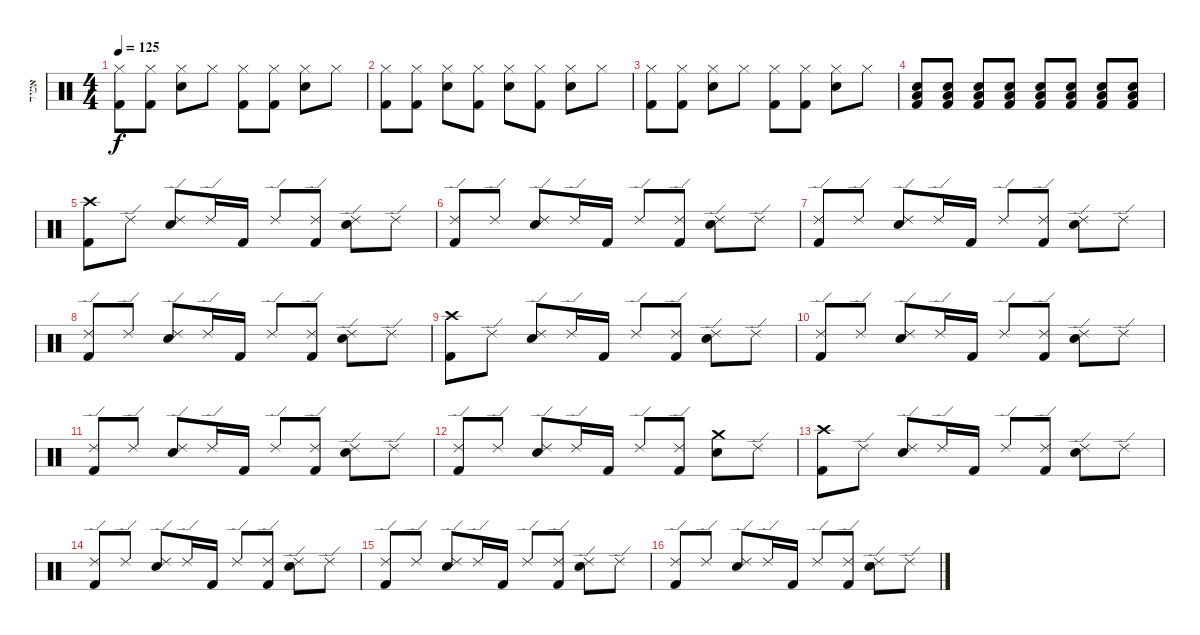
\track ("אמיר" "אמיר") {instrument percussion}
\staff {score}
\articulation defaults
\ts (4 4)
\tempo 125
\clef neutral
\ks c
("Hi-Hat (closed)" "Kick (hit) 2").8{dy f} ("Hi-Hat (closed)" "Kick (hit) 2").8 ("Hi-Hat (closed)" "Snare (hit) 2").8 "Hi-Hat (closed)".8 ("Hi-Hat (closed)" "Kick (hit) 2").8 ("Hi-Hat (closed)" "Kick (hit) 2").8 ("Hi-Hat (closed)" "Snare (hit) 2").8 "Hi-Hat (closed)".8 |
("Hi-Hat (closed)" "Kick (hit) 2").8 ("Hi-Hat (closed)" "Kick (hit) 2").8 ("Hi-Hat (closed)" "Snare (hit) 2").8 ("Hi-Hat (closed)" "Kick (hit) 2").8 ("Hi-Hat (closed)" "Snare (hit) 2").8 ("Hi-Hat (closed)" "Kick (hit) 2").8 ("Hi-Hat (closed)" "Snare (hit) 2").8 "Hi-Hat (closed)".8 |
("Hi-Hat (closed)" "Kick (hit) 2").8 ("Hi-Hat (closed)" "Kick (hit) 2").8 ("Hi-Hat (closed)" "Snare (hit) 2").8 "Hi-Hat (closed)".8 ("Hi-Hat (closed)" "Kick (hit) 2").8 ("Hi-Hat (closed)" "Kick (hit) 2").8 ("Hi-Hat (closed)" "Snare (hit) 2").8 "Hi-Hat (closed)".8 |
("Snare (hit) 2" "Low Floor Tom (hit)" "Kick (hit) 2").8 ("Snare (hit) 2" "Low Floor Tom (hit)" "Kick (hit) 2").8 ("Snare (hit) 2" "Low Floor Tom (hit)" "Kick (hit) 2").8 ("Snare (hit) 2" "Low Floor Tom (hit)" "Kick (hit) 2").8 ("Snare (hit) 2" "Low Floor Tom (hit)" "Kick (hit) 2").8 ("Snare (hit) 2" "Low Floor Tom (hit)" "Kick (hit) 2").8 ("Snare (hit) 2" "Low Floor Tom (hit)" "Kick (hit) 2").8 ("Snare (hit) 2" "Low Floor Tom (hit)" "Kick (hit) 2").8 |
("Crash high (hit)" "Kick (hit) 2").8 "Ride (edge) 2".8 ("Ride (edge) 2" "Snare (hit) 2").8 "Ride (edge) 2".16 "Kick (hit) 2".16 "Ride (edge) 2".8 ("Ride (edge) 2" "Kick (hit) 2").8 ("Ride (edge) 2" "Snare (hit) 2").8 "Ride (edge) 2".8 |
("Ride (edge) 2" "Kick (hit) 2").8 "Ride (edge) 2".8 ("Ride (edge) 2" "Snare (hit) 2").8 "Ride (edge) 2".16 "Kick (hit) 2".16 "Ride (edge) 2".8 ("Ride (edge) 2" "Kick (hit) 2").8 ("Ride (edge) 2" "Snare (hit) 2").8 "Ride (edge) 2".8 |
("Ride (edge) 2" "Kick (hit) 2").8 "Ride (edge) 2".8 ("Ride (edge) 2" "Snare (hit) 2").8 "Ride (edge) 2".16 "Kick (hit) 2".16 "Ride (edge) 2".8 ("Ride (edge) 2" "Kick (hit) 2").8 ("Ride (edge) 2" "Snare (hit) 2").8 "Ride (edge) 2".8 |
("Ride (edge) 2" "Kick (hit) 2").8 "Ride (edge) 2".8 ("Ride (edge) 2" "Snare (hit) 2").8 "Ride (edge) 2".16 "Kick (hit) 2".16 "Ride (edge) 2".8 ("Ride (edge) 2" "Kick (hit) 2").8 ("Ride (edge) 2" "Snare (hit) 2").8 "Ride (edge) 2".8 |
("Crash high (hit)" "Kick (hit) 2").8 "Ride (edge) 2".8 ("Ride (edge) 2" "Snare (hit) 2").8 "Ride (edge) 2".16 "Kick (hit) 2".16 "Ride (edge) 2".8 ("Ride (edge) 2" "Kick (hit) 2").8 ("Ride (edge) 2" "Snare (hit) 2").8 "Ride (edge) 2".8 |
("Ride (edge) 2" "Kick (hit) 2").8 "Ride (edge) 2".8 ("Ride (edge) 2" "Snare (hit) 2").8 "Ride (edge) 2".16 "Kick (hit) 2".16 "Ride (edge) 2".8 ("Ride (edge) 2" "Kick (hit) 2").8 ("Ride (edge) 2" "Snare (hit) 2").8 "Ride (edge) 2".8 |
("Ride (edge) 2" "Kick (hit) 2").8 "Ride (edge) 2".8 ("Ride (edge) 2" "Snare (hit) 2").8 "Ride (edge) 2".16 "Kick (hit) 2".16 "Ride (edge) 2".8 ("Ride (edge) 2" "Kick (hit) 2").8 ("Ride (edge) 2" "Snare (hit) 2").8 "Ride (edge) 2".8 |
("Ride (edge) 2" "Kick (hit) 2").8 "Ride (edge) 2".8 ("Ride (edge) 2" "Snare (hit) 2").8 "Ride (edge) 2".16 "Kick (hit) 2".16 "Ride (edge) 2".8 ("Ride (edge) 2" "Kick (hit) 2").8 ("Crash medium (hit)" "Snare (hit) 2").8 "Ride (edge) 2".8 |
("Crash high (hit)" "Kick (hit) 2").8 "Ride (edge) 2".8 ("Ride (edge) 2" "Snare (hit) 2").8 "Ride (edge) 2".16 "Kick (hit) 2".16 "Ride (edge) 2".8 ("Ride (edge) 2" "Kick (hit) 2").8 ("Ride (edge) 2" "Snare (hit) 2").8 "Ride (edge) 2".8 |
("Ride (edge) 2" "Kick (hit) 2").8 "Ride (edge) 2".8 ("Ride (edge) 2" "Snare (hit) 2").8 "Ride (edge) 2".16 "Kick (hit) 2".16 "Ride (edge) 2".8 ("Ride (edge) 2" "Kick (hit) 2").8 ("Ride (edge) 2" "Snare (hit) 2").8 "Ride (edge) 2".8 |
("Ride (edge) 2" "Kick (hit) 2").8 "Ride (edge) 2".8 ("Ride (edge) 2" "Snare (hit) 2").8 "Ride (edge) 2".16 "Kick (hit) 2".16 "Ride (edge) 2".8 ("Ride (edge) 2" "Kick (hit) 2").8 ("Ride (edge) 2" "Snare (hit) 2").8 "Ride (edge) 2".8 |
("Ride (edge) 2" "Kick (hit) 2").8 "Ride (edge) 2".8 ("Ride (edge) 2" "Snare (hit) 2").8 "Ride (edge) 2".16 "Kick (hit) 2".16 "Ride (edge) 2".8 ("Ride (edge) 2" "Kick (hit) 2").8 ("Ride (edge) 2" "Snare (hit) 2").8 "Ride (edge) 2".8
